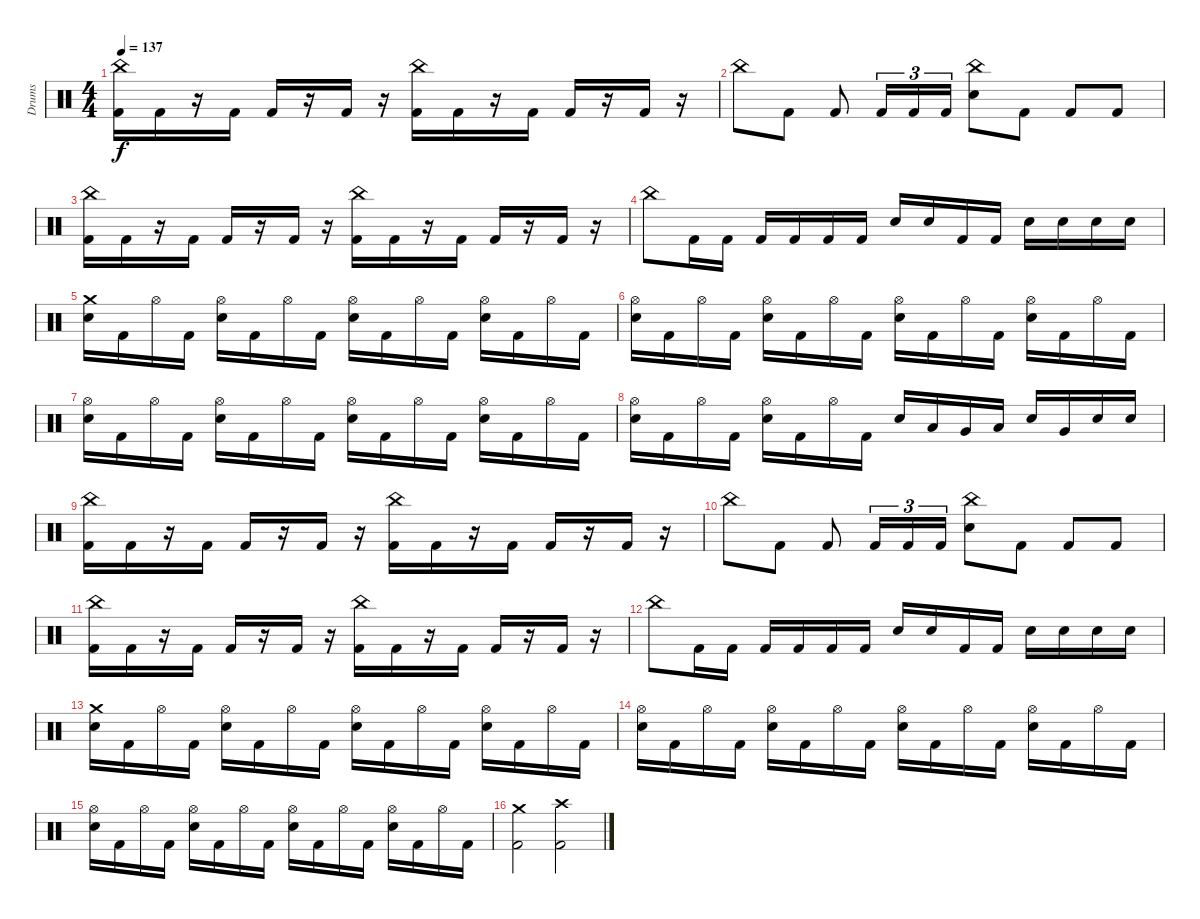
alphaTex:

\track ("Drums" "Drums") {instrument percussion}
\staff {score}
\articulation defaults
\ts (4 4)
\tempo 137
\clef neutral
\ks c
("China (hit)" "Kick (hit) 2").16{dy f} "Kick (hit) 2".16 r.16 "Kick (hit) 2".16 "Kick (hit) 2".16 r.16 "Kick (hit) 2".16 r.16 ("China (hit)" "Kick (hit) 2").16 "Kick (hit) 2".16 r.16 "Kick (hit) 2".16 "Kick (hit) 2".16 r.16 "Kick (hit) 2".16 r.16 |
"China (hit)".8 "Kick (hit) 2".8 "Kick (hit) 2".8 "Kick (hit) 2".16{tu (3 2)} "Kick (hit) 2".16{tu (3 2)} "Kick (hit) 2".16{tu (3 2)} ("China (hit)" "Electric Snare (hit)").8 "Kick (hit) 2".8 "Kick (hit) 2".8 "Kick (hit) 2".8 |
("China (hit)" "Kick (hit) 2").16 "Kick (hit) 2".16 r.16 "Kick (hit) 2".16 "Kick (hit) 2".16 r.16 "Kick (hit) 2".16 r.16 ("China (hit)" "Kick (hit) 2").16 "Kick (hit) 2".16 r.16 "Kick (hit) 2".16 "Kick (hit) 2".16 r.16 "Kick (hit) 2".16 r.16 |
"China (hit)".8 "Kick (hit) 2".16 "Kick (hit) 2".16 "Kick (hit) 2".16 "Kick (hit) 2".16 "Kick (hit) 2".16 "Kick (hit) 2".16 "Electric Snare (hit)".16 "Electric Snare (hit)".16 "Kick (hit) 2".16 "Kick (hit) 2".16 "Electric Snare (hit)".16 "Electric Snare (hit)".16 "Electric Snare (hit)".16 "Electric Snare (hit)".16 |
("Crash medium (hit)" "Electric Snare (hit)").16 "Kick (hit) 2".16 "Hi-Hat (open)".16 "Kick (hit) 2".16 ("Hi-Hat (open)" "Electric Snare (hit)").16 "Kick (hit) 2".16 "Hi-Hat (open)".16 "Kick (hit) 2".16 ("Hi-Hat (open)" "Electric Snare (hit)").16 "Kick (hit) 2".16 "Hi-Hat (open)".16 "Kick (hit) 2".16 ("Hi-Hat (open)" "Electric Snare (hit)").16 "Kick (hit) 2".16 "Hi-Hat (open)".16 "Kick (hit) 2".16 |
("Hi-Hat (open)" "Electric Snare (hit)").16 "Kick (hit) 2".16 "Hi-Hat (open)".16 "Kick (hit) 2".16 ("Hi-Hat (open)" "Electric Snare (hit)").16 "Kick (hit) 2".16 "Hi-Hat (open)".16 "Kick (hit) 2".16 ("Hi-Hat (open)" "Electric Snare (hit)").16 "Kick (hit) 2".16 "Hi-Hat (open)".16 "Kick (hit) 2".16 ("Hi-Hat (open)" "Electric Snare (hit)").16 "Kick (hit) 2".16 "Hi-Hat (open)".16 "Kick (hit) 2".16 |
("Hi-Hat (open)" "Electric Snare (hit)").16 "Kick (hit) 2".16 "Hi-Hat (open)".16 "Kick (hit) 2".16 ("Hi-Hat (open)" "Electric Snare (hit)").16 "Kick (hit) 2".16 "Hi-Hat (open)".16 "Kick (hit) 2".16 ("Hi-Hat (open)" "Electric Snare (hit)").16 "Kick (hit) 2".16 "Hi-Hat (open)".16 "Kick (hit) 2".16 ("Hi-Hat (open)" "Electric Snare (hit)").16 "Kick (hit) 2".16 "Hi-Hat (open)".16 "Kick (hit) 2".16 |
("Hi-Hat (open)" "Electric Snare (hit)").16 "Kick (hit) 2".16 "Hi-Hat (open)".16 "Kick (hit) 2".16 ("Hi-Hat (open)" "Electric Snare (hit)").16 "Kick (hit) 2".16 "Hi-Hat (open)".16 "Kick (hit) 2".16 "Electric Snare (hit)".16 "Low Tom (hit)".16 "Very Low Tom (hit)".16 "Low Floor Tom (hit)".16 "Electric Snare (hit)".16 "Very Low Tom (hit)".16 "Electric Snare (hit)".16 "Electric Snare (hit)".16 |
("China (hit)" "Kick (hit) 2").16 "Kick (hit) 2".16 r.16 "Kick (hit) 2".16 "Kick (hit) 2".16 r.16 "Kick (hit) 2".16 r.16 ("China (hit)" "Kick (hit) 2").16 "Kick (hit) 2".16 r.16 "Kick (hit) 2".16 "Kick (hit) 2".16 r.16 "Kick (hit) 2".16 r.16 |
"China (hit)".8 "Kick (hit) 2".8 "Kick (hit) 2".8 "Kick (hit) 2".16{tu (3 2)} "Kick (hit) 2".16{tu (3 2)} "Kick (hit) 2".16{tu (3 2)} ("China (hit)" "Electric Snare (hit)").8 "Kick (hit) 2".8 "Kick (hit) 2".8 "Kick (hit) 2".8 |
("China (hit)" "Kick (hit) 2").16 "Kick (hit) 2".16 r.16 "Kick (hit) 2".16 "Kick (hit) 2".16 r.16 "Kick (hit) 2".16 r.16 ("China (hit)" "Kick (hit) 2").16 "Kick (hit) 2".16 r.16 "Kick (hit) 2".16 "Kick (hit) 2".16 r.16 "Kick (hit) 2".16 r.16 |
"China (hit)".8 "Kick (hit) 2".16 "Kick (hit) 2".16 "Kick (hit) 2".16 "Kick (hit) 2".16 "Kick (hit) 2".16 "Kick (hit) 2".16 "Electric Snare (hit)".16 "Electric Snare (hit)".16 "Kick (hit) 2".16 "Kick (hit) 2".16 "Electric Snare (hit)".16 "Electric Snare (hit)".16 "Electric Snare (hit)".16 "Electric Snare (hit)".16 |
("Crash medium (hit)" "Electric Snare (hit)").16 "Kick (hit) 2".16 "Hi-Hat (open)".16 "Kick (hit) 2".16 ("Hi-Hat (open)" "Electric Snare (hit)").16 "Kick (hit) 2".16 "Hi-Hat (open)".16 "Kick (hit) 2".16 ("Hi-Hat (open)" "Electric Snare (hit)").16 "Kick (hit) 2".16 "Hi-Hat (open)".16 "Kick (hit) 2".16 ("Hi-Hat (open)" "Electric Snare (hit)").16 "Kick (hit) 2".16 "Hi-Hat (open)".16 "Kick (hit) 2".16 |
("Hi-Hat (open)" "Electric Snare (hit)").16 "Kick (hit) 2".16 "Hi-Hat (open)".16 "Kick (hit) 2".16 ("Hi-Hat (open)" "Electric Snare (hit)").16 "Kick (hit) 2".16 "Hi-Hat (open)".16 "Kick (hit) 2".16 ("Hi-Hat (open)" "Electric Snare (hit)").16 "Kick (hit) 2".16 "Hi-Hat (open)".16 "Kick (hit) 2".16 ("Hi-Hat (open)" "Electric Snare (hit)").16 "Kick (hit) 2".16 "Hi-Hat (open)".16 "Kick (hit) 2".16 |
("Hi-Hat (open)" "Electric Snare (hit)").16 "Kick (hit) 2".16 "Hi-Hat (open)".16 "Kick (hit) 2".16 ("Hi-Hat (open)" "Electric Snare (hit)").16 "Kick (hit) 2".16 "Hi-Hat (open)".16 "Kick (hit) 2".16 ("Hi-Hat (open)" "Electric Snare (hit)").16 "Kick (hit) 2".16 "Hi-Hat (open)".16 "Kick (hit) 2".16 ("Hi-Hat (open)" "Electric Snare (hit)").16 "Kick (hit) 2".16 "Hi-Hat (open)".16 "Kick (hit) 2".16 |
("Crash medium (hit)" "Kick (hit) 2").2 ("Crash high (hit)" "Kick (hit) 2").2
